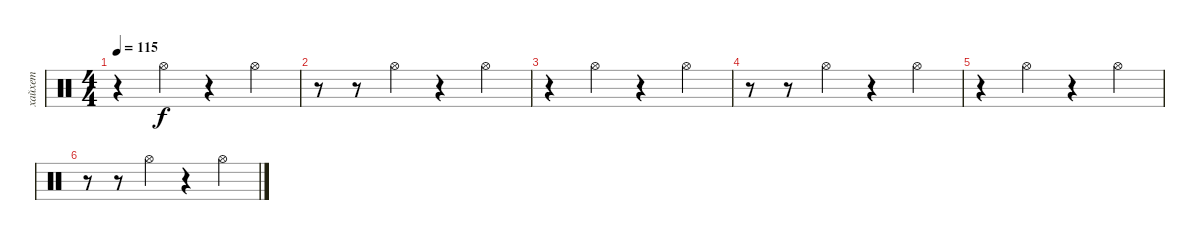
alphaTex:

\track ("хайхет" "хайхет") {mute instrument percussion}
\staff {score}
\articulation defaults
\ts (4 4)
\tempo 115
\clef neutral
\ks c
r.4{dy f} "Hi-Hat (open)".4 r.4 "Hi-Hat (open)".4 |
r.8 r.8 "Hi-Hat (open)".4 r.4 "Hi-Hat (open)".4 |
r.4 "Hi-Hat (open)".4 r.4 "Hi-Hat (open)".4 |
r.8 r.8 "Hi-Hat (open)".4 r.4 "Hi-Hat (open)".4 |
r.4 "Hi-Hat (open)".4 r.4 "Hi-Hat (open)".4 |
r.8 r.8 "Hi-Hat (open)".4 r.4 "Hi-Hat (open)".4
